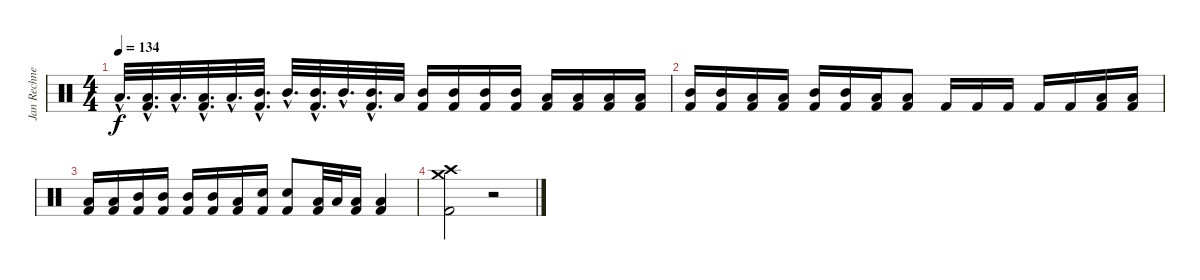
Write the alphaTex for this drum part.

\track ("Jan Rechnerger" "Jan Rechne") {instrument percussion}
\staff {score}
\articulation defaults
\ts (4 4)
\tempo 134
\clef neutral
\ks c "Low Tom (hit)"{hac}.32{d dy f}
("Low Tom (hit)"{hac} "Kick (hit) 2"{hac}).32{d} "Low Tom (hit)"{hac}.32{d} ("Low Tom (hit)"{hac} "Kick (hit) 2"{hac}).32{d} "Low Tom (hit)"{hac}.32{d} ("Mid Tom (hit)"{hac} "Kick (hit) 2"{hac}).32{d} "Mid Tom (hit)"{hac}.32{d} ("Mid Tom (hit)"{hac} "Kick (hit) 2"{hac}).32{d} "Mid Tom (hit)"{hac}.32{d} ("Mid Tom (hit)"{hac} "Kick (hit) 2"{hac}).32{d} "Low Tom (hit)".32 ("Mid Tom (hit)" "Kick (hit) 2").16 ("Mid Tom (hit)" "Kick (hit) 2").16 ("Mid Tom (hit)" "Kick (hit) 2").16 ("Mid Tom (hit)" "Kick (hit) 2").16 ("Low Tom (hit)" "Kick (hit) 2").16 ("Low Tom (hit)" "Kick (hit) 2").16 ("Low Tom (hit)" "Kick (hit) 2").16 ("Low Tom (hit)" "Kick (hit) 2").16 |
("Mid Tom (hit)" "Kick (hit) 2").16 ("Mid Tom (hit)" "Kick (hit) 2").16 ("Low Tom (hit)" "Kick (hit) 2").16 ("Low Tom (hit)" "Kick (hit) 2").16 ("Mid Tom (hit)" "Kick (hit) 2").16 ("Mid Tom (hit)" "Kick (hit) 2").16 ("Low Tom (hit)" "Kick (hit) 2").16 ("Low Tom (hit)" "Kick (hit) 2").8 "Kick (hit) 2".16 "Kick (hit) 2".16 "Kick (hit) 2".16 "Kick (hit) 2".16 "Kick (hit) 2".16 ("Low Tom (hit)" "Kick (hit) 2").16 ("Low Tom (hit)" "Kick (hit) 2").16 |
("Low Tom (hit)" "Kick (hit) 2").16 ("Low Tom (hit)" "Kick (hit) 2").16 ("Mid Tom (hit)" "Kick (hit) 2").16 ("Mid Tom (hit)" "Kick (hit) 2").16 ("Mid Tom (hit)" "Kick (hit) 2").16 ("Mid Tom (hit)" "Kick (hit) 2").16 ("Low Tom (hit)" "Kick (hit) 2").16 ("Snare (hit) 2" "Kick (hit) 2").16 ("Snare (hit) 2" "Kick (hit) 2").8 ("Low Tom (hit)" "Kick (hit) 2").32 "Low Tom (hit)".32 ("Low Tom (hit)" "Kick (hit) 2").16 ("Low Tom (hit)" "Kick (hit) 2").4 |
("Crash high (hit)" "Crash medium (hit)" "Kick (hit) 2").2 r.2
